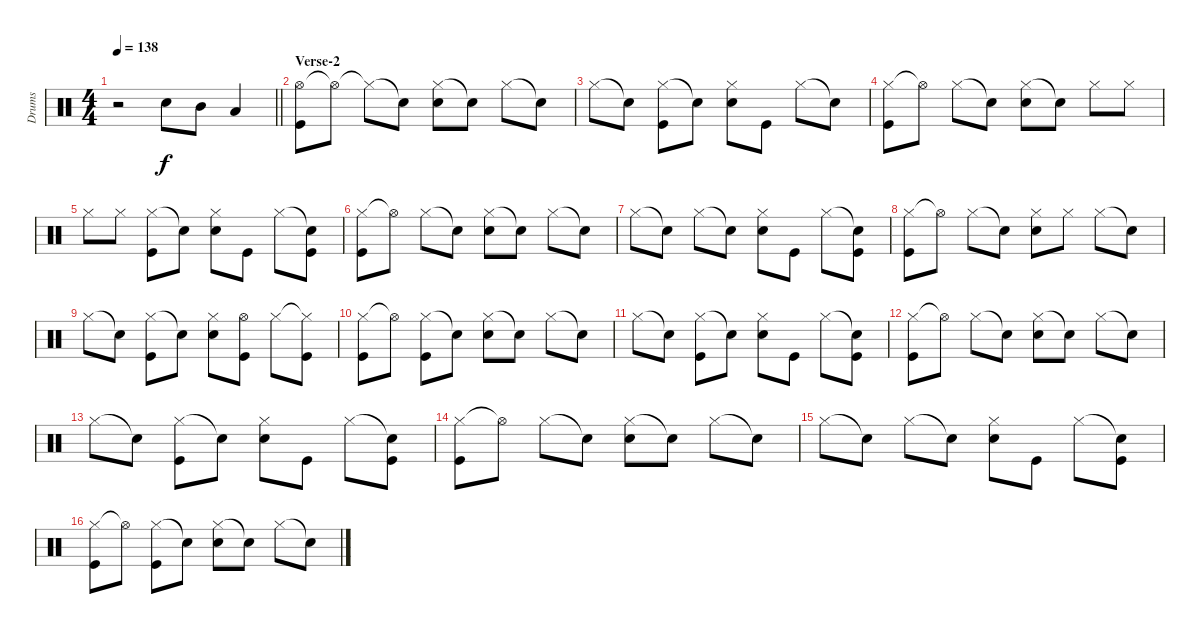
\track ("Drums" "Drums") {instrument percussion}
\staff {score}
\articulation defaults
\ts (4 4)
\tempo 138
\clef neutral
\barLineRight lightlight
\ks c
r.2{dy f} "Electric Snare (hit)".8 "Mid Tom (hit)".8 "Low Tom (hit)".4 |
\section ("" "Verse-2")
("Hi-Hat (open)" "Kick (hit)").8 "Hi-Hat (open)"{t}.8 "Hi-Hat (closed)"{t}.8 "Snare (hit)"{t}.8 ("Hi-Hat (closed)" "Electric Snare (hit)").8 "Snare (hit)"{t}.8 "Hi-Hat (closed)".8 "Snare (hit)"{t}.8 |
"Hi-Hat (closed)".8 "Snare (hit)"{t}.8 ("Hi-Hat (closed)" "Kick (hit)").8 "Snare (hit)"{t}.8 ("Hi-Hat (closed)" "Electric Snare (hit)").8 "Kick (hit)".8 "Hi-Hat (closed)".8 "Snare (hit)"{t}.8 |
("Hi-Hat (closed)" "Kick (hit)").8 "Hi-Hat (open)"{t}.8 "Hi-Hat (closed)".8 "Snare (hit)"{t}.8 ("Hi-Hat (closed)" "Electric Snare (hit)").8 "Snare (hit)"{t}.8 "Hi-Hat (closed)".8 "Hi-Hat (closed)".8 |
"Hi-Hat (closed)".8 "Hi-Hat (closed)".8 ("Hi-Hat (closed)" "Kick (hit)").8 "Snare (hit)"{t}.8 ("Hi-Hat (closed)" "Electric Snare (hit)").8 "Kick (hit)".8 "Hi-Hat (closed)".8 ("Snare (hit)"{t} "Kick (hit)").8 |
("Hi-Hat (closed)" "Kick (hit)").8 "Hi-Hat (open)"{t}.8 "Hi-Hat (closed)".8 "Snare (hit)"{t}.8 ("Hi-Hat (closed)" "Electric Snare (hit)").8 "Snare (hit)"{t}.8 "Hi-Hat (closed)".8 "Snare (hit)"{t}.8 |
"Hi-Hat (closed)".8 "Snare (hit)"{t}.8 "Hi-Hat (closed)".8 "Snare (hit)"{t}.8 ("Hi-Hat (closed)" "Electric Snare (hit)").8 "Kick (hit)".8 "Hi-Hat (closed)".8 ("Snare (hit)"{t} "Kick (hit)").8 |
("Hi-Hat (closed)" "Kick (hit)").8 "Hi-Hat (open)"{t}.8 "Hi-Hat (closed)".8 "Snare (hit)"{t}.8 ("Hi-Hat (closed)" "Electric Snare (hit)").8 "Hi-Hat (closed)".8 "Hi-Hat (closed)".8 "Snare (hit)"{t}.8 |
"Hi-Hat (closed)".8 "Snare (hit)"{t}.8 ("Hi-Hat (closed)" "Kick (hit)").8 "Snare (hit)"{t}.8 ("Hi-Hat (closed)" "Electric Snare (hit)").8 ("Hi-Hat (open)" "Kick (hit)").8 "Hi-Hat (closed)".8 ("Hi-Hat (closed)"{t} "Kick (hit)").8 |
("Hi-Hat (closed)" "Kick (hit)").8 "Hi-Hat (open)"{t}.8 ("Hi-Hat (closed)" "Kick (hit)").8 "Snare (hit)"{t}.8 ("Hi-Hat (closed)" "Electric Snare (hit)").8 "Snare (hit)"{t}.8 "Hi-Hat (closed)".8 "Snare (hit)"{t}.8 |
"Hi-Hat (closed)".8 "Snare (hit)"{t}.8 ("Hi-Hat (closed)" "Kick (hit)").8 "Snare (hit)"{t}.8 ("Hi-Hat (closed)" "Electric Snare (hit)").8 "Kick (hit)".8 "Hi-Hat (closed)".8 ("Snare (hit)"{t} "Kick (hit)").8 |
("Hi-Hat (closed)" "Kick (hit)").8 "Hi-Hat (open)"{t}.8 "Hi-Hat (closed)".8 "Snare (hit)"{t}.8 ("Hi-Hat (closed)" "Electric Snare (hit)").8 "Snare (hit)"{t}.8 "Hi-Hat (closed)".8 "Snare (hit)"{t}.8 |
"Hi-Hat (closed)".8 "Snare (hit)"{t}.8 ("Hi-Hat (closed)" "Kick (hit)").8 "Snare (hit)"{t}.8 ("Hi-Hat (closed)" "Electric Snare (hit)").8 "Kick (hit)".8 "Hi-Hat (closed)".8 ("Snare (hit)"{t} "Kick (hit)").8 |
("Hi-Hat (closed)" "Kick (hit)").8 "Hi-Hat (open)"{t}.8 "Hi-Hat (closed)".8 "Snare (hit)"{t}.8 ("Hi-Hat (closed)" "Electric Snare (hit)").8 "Snare (hit)"{t}.8 "Hi-Hat (closed)".8 "Snare (hit)"{t}.8 |
"Hi-Hat (closed)".8 "Snare (hit)"{t}.8 "Hi-Hat (closed)".8 "Snare (hit)"{t}.8 ("Hi-Hat (closed)" "Electric Snare (hit)").8 "Kick (hit)".8 "Hi-Hat (closed)".8 ("Snare (hit)"{t} "Kick (hit)").8 |
("Hi-Hat (closed)" "Kick (hit)").8 "Hi-Hat (open)"{t}.8 ("Hi-Hat (closed)" "Kick (hit)").8 "Snare (hit)"{t}.8 ("Hi-Hat (closed)" "Electric Snare (hit)").8 "Snare (hit)"{t}.8 "Hi-Hat (closed)".8 "Snare (hit)"{t}.8
